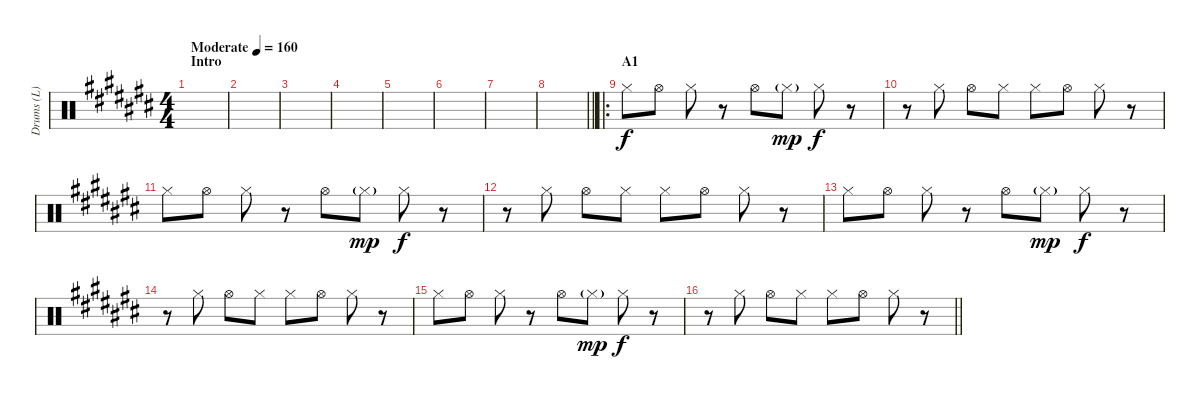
\track ("Drums (L)" "Drums (L)") {instrument percussion}
\staff {score}
\articulation defaults
\ts (4 4)
\section ("" "Intro")
\tempo (160 "Moderate")
\clef neutral
\ks c#
|
|
|
|
|
|
|
\barLineRight lightlight
|
\ro
\section ("" "A1")
"Hi-Hat (closed)".8 "Hi-Hat (open)".8 "Hi-Hat (closed)".8 r.8 "Hi-Hat (open)".8 "Hi-Hat (closed)"{g}.8{dy mp} "Hi-Hat (closed)".8{dy f} r.8 |
r.8 "Hi-Hat (closed)".8 "Hi-Hat (open)".8 "Hi-Hat (closed)".8 "Hi-Hat (closed)".8 "Hi-Hat (open)".8 "Hi-Hat (closed)".8 r.8 |
"Hi-Hat (closed)".8 "Hi-Hat (open)".8 "Hi-Hat (closed)".8 r.8 "Hi-Hat (open)".8 "Hi-Hat (closed)"{g}.8{dy mp} "Hi-Hat (closed)".8{dy f} r.8 |
r.8 "Hi-Hat (closed)".8 "Hi-Hat (open)".8 "Hi-Hat (closed)".8 "Hi-Hat (closed)".8 "Hi-Hat (open)".8 "Hi-Hat (closed)".8 r.8 |
"Hi-Hat (closed)".8 "Hi-Hat (open)".8 "Hi-Hat (closed)".8 r.8 "Hi-Hat (open)".8 "Hi-Hat (closed)"{g}.8{dy mp} "Hi-Hat (closed)".8{dy f} r.8 |
r.8 "Hi-Hat (closed)".8 "Hi-Hat (open)".8 "Hi-Hat (closed)".8 "Hi-Hat (closed)".8 "Hi-Hat (open)".8 "Hi-Hat (closed)".8 r.8 |
"Hi-Hat (closed)".8 "Hi-Hat (open)".8 "Hi-Hat (closed)".8 r.8 "Hi-Hat (open)".8 "Hi-Hat (closed)"{g}.8{dy mp} "Hi-Hat (closed)".8{dy f} r.8 |
\barLineRight lightlight
r.8 "Hi-Hat (closed)".8 "Hi-Hat (open)".8 "Hi-Hat (closed)".8 "Hi-Hat (closed)".8 "Hi-Hat (open)".8 "Hi-Hat (closed)".8 r.8
